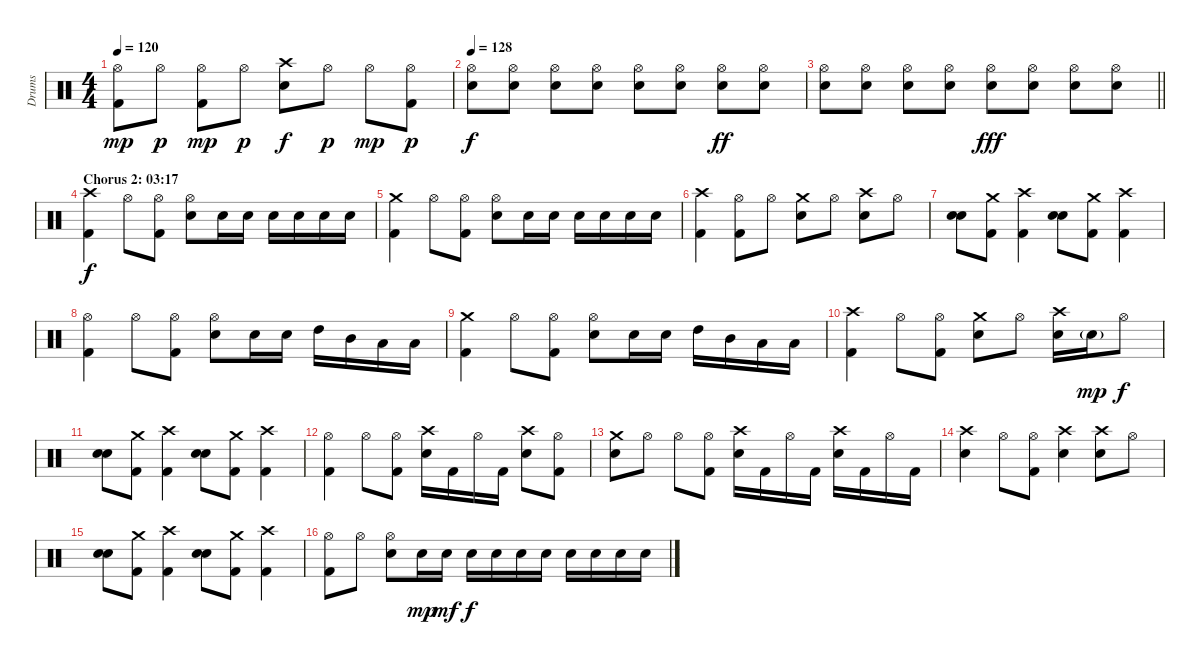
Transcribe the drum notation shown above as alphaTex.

\track ("Drums" "Drums") {instrument percussion}
\staff {score}
\articulation defaults
\ts (4 4)
\tempo 120
\clef neutral
\ks c
("Hi-Hat (open)" "Kick (hit) 2").8{dy mp} "Hi-Hat (open)".8{dy p} ("Hi-Hat (open)" "Kick (hit) 2").8{dy mp} "Hi-Hat (open)".8{dy p} ("Crash high (hit)" "Electric Snare (hit)").8{dy f} "Hi-Hat (open)".8{dy p} "Hi-Hat (open)".8{dy mp} ("Hi-Hat (open)" "Kick (hit) 2").8{dy p} |
\tempo 128
("Hi-Hat (open)" "Electric Snare (hit)").8{dy f} ("Hi-Hat (open)" "Electric Snare (hit)").8 ("Hi-Hat (open)" "Electric Snare (hit)").8 ("Hi-Hat (open)" "Electric Snare (hit)").8 ("Hi-Hat (open)" "Electric Snare (hit)").8 ("Hi-Hat (open)" "Electric Snare (hit)").8 ("Hi-Hat (open)" "Electric Snare (hit)").8{dy ff} ("Hi-Hat (open)" "Electric Snare (hit)").8 |
\barLineRight lightlight
("Hi-Hat (open)" "Electric Snare (hit)").8 ("Hi-Hat (open)" "Electric Snare (hit)").8 ("Hi-Hat (open)" "Electric Snare (hit)").8 ("Hi-Hat (open)" "Electric Snare (hit)").8 ("Hi-Hat (open)" "Electric Snare (hit)").8{dy fff} ("Hi-Hat (open)" "Electric Snare (hit)").8 ("Hi-Hat (open)" "Electric Snare (hit)").8 ("Hi-Hat (open)" "Electric Snare (hit)").8 |
\section ("" "Chorus 2: 03:17")
("Crash high (hit)" "Kick (hit) 2").4{dy f} "Hi-Hat (open)".8 ("Hi-Hat (open)" "Kick (hit) 2").8 ("Hi-Hat (open)" "Electric Snare (hit)").8 "Electric Snare (hit)".16 "Electric Snare (hit)".16 "Electric Snare (hit)".16 "Electric Snare (hit)".16 "Electric Snare (hit)".16 "Electric Snare (hit)".16 |
("Crash medium (hit)" "Kick (hit) 2").4 "Hi-Hat (open)".8 ("Hi-Hat (open)" "Kick (hit) 2").8 ("Hi-Hat (open)" "Electric Snare (hit)").8 "Electric Snare (hit)".16 "Electric Snare (hit)".16 "Electric Snare (hit)".16 "Electric Snare (hit)".16 "Electric Snare (hit)".16 "Electric Snare (hit)".16 |
("Crash high (hit)" "Kick (hit) 2").4 ("Hi-Hat (open)" "Kick (hit) 2").8 "Hi-Hat (open)".8 ("Crash medium (hit)" "Electric Snare (hit)").8 "Hi-Hat (open)".8 ("Crash high (hit)" "Electric Snare (hit)").8 "Hi-Hat (open)".8 |
("Electric Snare (hit)" "Electric Snare (hit)").8{bd 60} ("Crash medium (hit)" "Kick (hit) 2").8 ("Crash high (hit)" "Kick (hit) 2").4 ("Electric Snare (hit)" "Electric Snare (hit)").8{bd 60} ("Crash medium (hit)" "Kick (hit) 2").8 ("Crash high (hit)" "Kick (hit) 2").4 |
("Hi-Hat (open)" "Kick (hit) 2").4 "Hi-Hat (open)".8 ("Hi-Hat (open)" "Kick (hit) 2").8 ("Hi-Hat (open)" "Electric Snare (hit)").8 "Electric Snare (hit)".16 "Electric Snare (hit)".16 "High Tom (hit)".16 "Mid Tom (hit)".16 "Low Tom (hit)".16 "Low Tom (hit)".16 |
("Crash medium (hit)" "Kick (hit) 2").4 "Hi-Hat (open)".8 ("Hi-Hat (open)" "Kick (hit) 2").8 ("Hi-Hat (open)" "Electric Snare (hit)").8 "Electric Snare (hit)".16 "Electric Snare (hit)".16 "High Tom (hit)".16 "Mid Tom (hit)".16 "Low Tom (hit)".16 "Low Tom (hit)".16 |
("Crash high (hit)" "Kick (hit) 2").4 "Hi-Hat (open)".8 ("Hi-Hat (open)" "Kick (hit) 2").8 ("Crash medium (hit)" "Electric Snare (hit)").8 "Hi-Hat (open)".8 ("Crash high (hit)" "Electric Snare (hit)").16 "Electric Snare (hit)"{g}.16{dy mp} "Hi-Hat (open)".8{dy f} |
("Electric Snare (hit)" "Electric Snare (hit)").8{bd 60} ("Crash medium (hit)" "Kick (hit) 2").8 ("Crash high (hit)" "Kick (hit) 2").4 ("Electric Snare (hit)" "Electric Snare (hit)").8{bd 60} ("Crash medium (hit)" "Kick (hit) 2").8 ("Crash high (hit)" "Kick (hit) 2").4 |
("Hi-Hat (open)" "Kick (hit) 2").4 "Hi-Hat (open)".8 ("Hi-Hat (open)" "Kick (hit) 2").8 ("Crash high (hit)" "Electric Snare (hit)").16 "Kick (hit) 2".16 "Hi-Hat (open)".16 "Kick (hit) 2".16 ("Crash high (hit)" "Electric Snare (hit)").8 ("Hi-Hat (open)" "Kick (hit) 2").8 |
("Crash medium (hit)" "Electric Snare (hit)").8 "Hi-Hat (open)".8 "Hi-Hat (open)".8 ("Hi-Hat (open)" "Kick (hit) 2").8 ("Crash high (hit)" "Electric Snare (hit)").16 "Kick (hit) 2".16 "Hi-Hat (open)".16 "Kick (hit) 2".16 ("Crash high (hit)" "Electric Snare (hit)").16 "Kick (hit) 2".16 "Hi-Hat (open)".16 "Kick (hit) 2".16 |
("Crash high (hit)" "Electric Snare (hit)").4 "Hi-Hat (open)".8 ("Hi-Hat (open)" "Kick (hit) 2").8 ("Crash high (hit)" "Electric Snare (hit)").4 ("Crash high (hit)" "Electric Snare (hit)").8 "Hi-Hat (open)".8 |
("Electric Snare (hit)" "Electric Snare (hit)").8{bd 60} ("Crash medium (hit)" "Kick (hit) 2").8 ("Crash high (hit)" "Kick (hit) 2").4 ("Electric Snare (hit)" "Electric Snare (hit)").8{bd 60} ("Crash medium (hit)" "Kick (hit) 2").8 ("Crash high (hit)" "Kick (hit) 2").4 |
("Hi-Hat (open)" "Kick (hit) 2").8 "Hi-Hat (open)".8 ("Hi-Hat (open)" "Electric Snare (hit)").8 "Electric Snare (hit)".16{dy mp} "Electric Snare (hit)".16{dy mf} "Electric Snare (hit)".16{dy f} "Electric Snare (hit)".16 "Electric Snare (hit)".16 "Electric Snare (hit)".16 "Electric Snare (hit)".16 "Electric Snare (hit)".16 "Electric Snare (hit)".16 "Electric Snare (hit)".16
